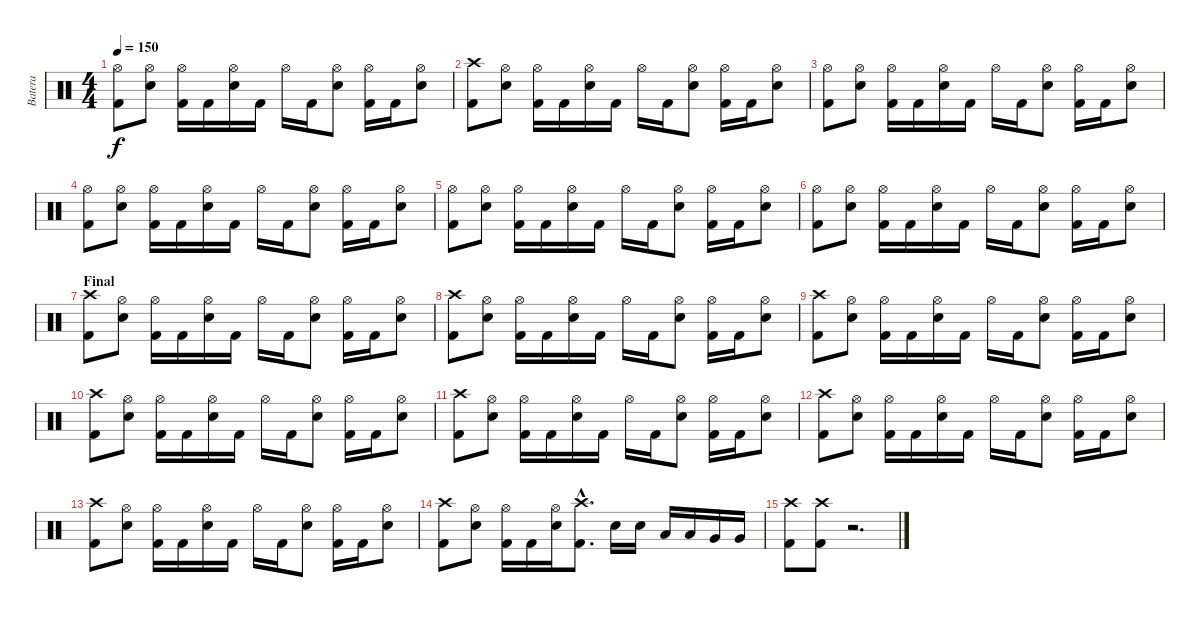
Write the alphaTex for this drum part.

\track ("Batera" "Batera") {instrument percussion}
\staff {score}
\articulation defaults
\ts (4 4)
\tempo 150
\clef neutral
\ks c
("Hi-Hat (open)" "Kick (hit) 2").8{dy f} ("Hi-Hat (open)" "Snare (hit) 2").8 ("Hi-Hat (open)" "Kick (hit) 2").16 "Kick (hit) 2".16 ("Hi-Hat (open)" "Snare (hit) 2").16 "Kick (hit) 2".16 "Hi-Hat (open)".16 "Kick (hit) 2".16 ("Hi-Hat (open)" "Snare (hit) 2").8 ("Hi-Hat (open)" "Kick (hit) 2").16 "Kick (hit) 2".16 ("Hi-Hat (open)" "Snare (hit) 2").8 |
("Crash high (hit)" "Kick (hit) 2").8 ("Hi-Hat (open)" "Snare (hit) 2").8 ("Hi-Hat (open)" "Kick (hit) 2").16 "Kick (hit) 2".16 ("Hi-Hat (open)" "Snare (hit) 2").16 "Kick (hit) 2".16 "Hi-Hat (open)".16 "Kick (hit) 2".16 ("Hi-Hat (open)" "Snare (hit) 2").8 ("Hi-Hat (open)" "Kick (hit) 2").16 "Kick (hit) 2".16 ("Hi-Hat (open)" "Snare (hit) 2").8 |
("Hi-Hat (open)" "Kick (hit) 2").8 ("Hi-Hat (open)" "Snare (hit) 2").8 ("Hi-Hat (open)" "Kick (hit) 2").16 "Kick (hit) 2".16 ("Hi-Hat (open)" "Snare (hit) 2").16 "Kick (hit) 2".16 "Hi-Hat (open)".16 "Kick (hit) 2".16 ("Hi-Hat (open)" "Snare (hit) 2").8 ("Hi-Hat (open)" "Kick (hit) 2").16 "Kick (hit) 2".16 ("Hi-Hat (open)" "Snare (hit) 2").8 |
("Hi-Hat (open)" "Kick (hit) 2").8 ("Hi-Hat (open)" "Snare (hit) 2").8 ("Hi-Hat (open)" "Kick (hit) 2").16 "Kick (hit) 2".16 ("Hi-Hat (open)" "Snare (hit) 2").16 "Kick (hit) 2".16 "Hi-Hat (open)".16 "Kick (hit) 2".16 ("Hi-Hat (open)" "Snare (hit) 2").8 ("Hi-Hat (open)" "Kick (hit) 2").16 "Kick (hit) 2".16 ("Hi-Hat (open)" "Snare (hit) 2").8 |
("Hi-Hat (open)" "Kick (hit) 2").8 ("Hi-Hat (open)" "Snare (hit) 2").8 ("Hi-Hat (open)" "Kick (hit) 2").16 "Kick (hit) 2".16 ("Hi-Hat (open)" "Snare (hit) 2").16 "Kick (hit) 2".16 "Hi-Hat (open)".16 "Kick (hit) 2".16 ("Hi-Hat (open)" "Snare (hit) 2").8 ("Hi-Hat (open)" "Kick (hit) 2").16 "Kick (hit) 2".16 ("Hi-Hat (open)" "Snare (hit) 2").8 |
("Hi-Hat (open)" "Kick (hit) 2").8 ("Hi-Hat (open)" "Snare (hit) 2").8 ("Hi-Hat (open)" "Kick (hit) 2").16 "Kick (hit) 2".16 ("Hi-Hat (open)" "Snare (hit) 2").16 "Kick (hit) 2".16 "Hi-Hat (open)".16 "Kick (hit) 2".16 ("Hi-Hat (open)" "Snare (hit) 2").8 ("Hi-Hat (open)" "Kick (hit) 2").16 "Kick (hit) 2".16 ("Hi-Hat (open)" "Snare (hit) 2").8 |
\section ("" "Final")
("Crash high (hit)" "Kick (hit) 2").8 ("Hi-Hat (open)" "Snare (hit) 2").8 ("Hi-Hat (open)" "Kick (hit) 2").16 "Kick (hit) 2".16 ("Hi-Hat (open)" "Snare (hit) 2").16 "Kick (hit) 2".16 "Hi-Hat (open)".16 "Kick (hit) 2".16 ("Hi-Hat (open)" "Snare (hit) 2").8 ("Hi-Hat (open)" "Kick (hit) 2").16 "Kick (hit) 2".16 ("Hi-Hat (open)" "Snare (hit) 2").8 |
("Crash high (hit)" "Kick (hit) 2").8 ("Hi-Hat (open)" "Snare (hit) 2").8 ("Hi-Hat (open)" "Kick (hit) 2").16 "Kick (hit) 2".16 ("Hi-Hat (open)" "Snare (hit) 2").16 "Kick (hit) 2".16 "Hi-Hat (open)".16 "Kick (hit) 2".16 ("Hi-Hat (open)" "Snare (hit) 2").8 ("Hi-Hat (open)" "Kick (hit) 2").16 "Kick (hit) 2".16 ("Hi-Hat (open)" "Snare (hit) 2").8 |
("Crash high (hit)" "Kick (hit) 2").8 ("Hi-Hat (open)" "Snare (hit) 2").8 ("Hi-Hat (open)" "Kick (hit) 2").16 "Kick (hit) 2".16 ("Hi-Hat (open)" "Snare (hit) 2").16 "Kick (hit) 2".16 "Hi-Hat (open)".16 "Kick (hit) 2".16 ("Hi-Hat (open)" "Snare (hit) 2").8 ("Hi-Hat (open)" "Kick (hit) 2").16 "Kick (hit) 2".16 ("Hi-Hat (open)" "Snare (hit) 2").8 |
("Crash high (hit)" "Kick (hit) 2").8 ("Hi-Hat (open)" "Snare (hit) 2").8 ("Hi-Hat (open)" "Kick (hit) 2").16 "Kick (hit) 2".16 ("Hi-Hat (open)" "Snare (hit) 2").16 "Kick (hit) 2".16 "Hi-Hat (open)".16 "Kick (hit) 2".16 ("Hi-Hat (open)" "Snare (hit) 2").8 ("Hi-Hat (open)" "Kick (hit) 2").16 "Kick (hit) 2".16 ("Hi-Hat (open)" "Snare (hit) 2").8 |
("Crash high (hit)" "Kick (hit) 2").8 ("Hi-Hat (open)" "Snare (hit) 2").8 ("Hi-Hat (open)" "Kick (hit) 2").16 "Kick (hit) 2".16 ("Hi-Hat (open)" "Snare (hit) 2").16 "Kick (hit) 2".16 "Hi-Hat (open)".16 "Kick (hit) 2".16 ("Hi-Hat (open)" "Snare (hit) 2").8 ("Hi-Hat (open)" "Kick (hit) 2").16 "Kick (hit) 2".16 ("Hi-Hat (open)" "Snare (hit) 2").8 |
("Crash high (hit)" "Kick (hit) 2").8 ("Hi-Hat (open)" "Snare (hit) 2").8 ("Hi-Hat (open)" "Kick (hit) 2").16 "Kick (hit) 2".16 ("Hi-Hat (open)" "Snare (hit) 2").16 "Kick (hit) 2".16 "Hi-Hat (open)".16 "Kick (hit) 2".16 ("Hi-Hat (open)" "Snare (hit) 2").8 ("Hi-Hat (open)" "Kick (hit) 2").16 "Kick (hit) 2".16 ("Hi-Hat (open)" "Snare (hit) 2").8 |
("Crash high (hit)" "Kick (hit) 2").8 ("Hi-Hat (open)" "Snare (hit) 2").8 ("Hi-Hat (open)" "Kick (hit) 2").16 "Kick (hit) 2".16 ("Hi-Hat (open)" "Snare (hit) 2").16 "Kick (hit) 2".16 "Hi-Hat (open)".16 "Kick (hit) 2".16 ("Hi-Hat (open)" "Snare (hit) 2").8 ("Hi-Hat (open)" "Kick (hit) 2").16 "Kick (hit) 2".16 ("Hi-Hat (open)" "Snare (hit) 2").8 |
("Crash high (hit)" "Kick (hit) 2").8 ("Hi-Hat (open)" "Snare (hit) 2").8 ("Hi-Hat (open)" "Kick (hit) 2").16 "Kick (hit) 2".16 ("Hi-Hat (open)" "Snare (hit) 2").16 ("Crash high (hit)"{hac} "Kick (hit) 2"{hac}).8{d} "Snare (hit) 2".16 "Snare (hit) 2".16 "Low Tom (hit)".16 "Low Tom (hit)".16 "Very Low Tom (hit)".16 "Very Low Tom (hit)".16 |
("Crash high (hit)" "Kick (hit) 2").8 ("Crash high (hit)" "Kick (hit) 2").8 r.2{d}
